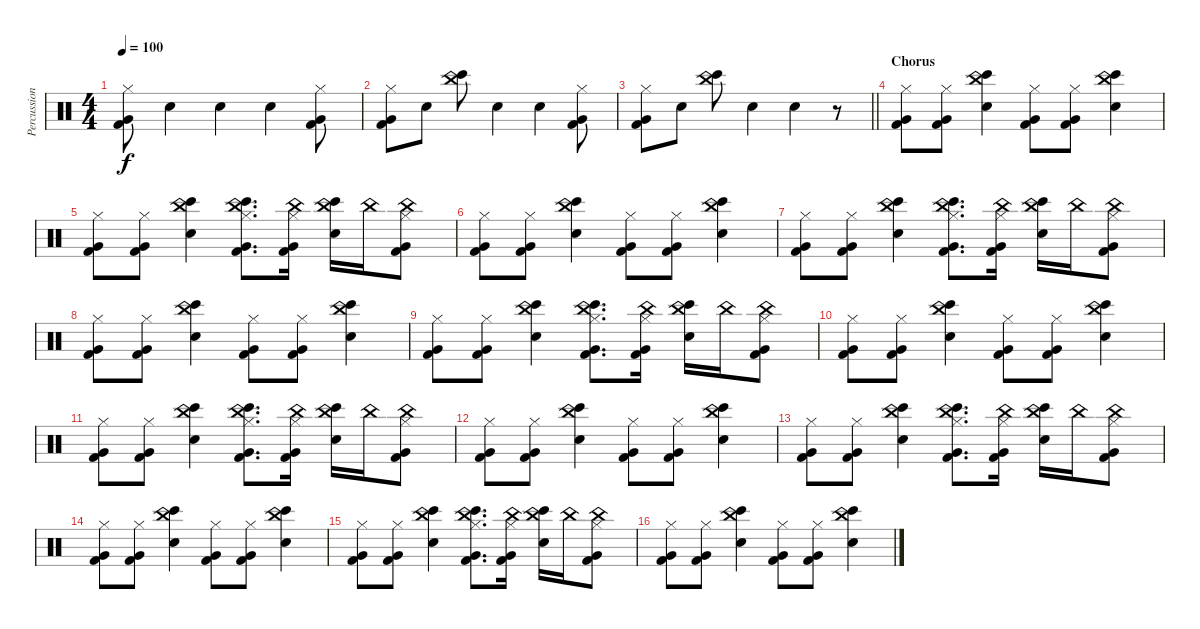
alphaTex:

\track ("Percussion" "Percussion") {instrument percussion}
\staff {score}
\articulation defaults
\ts (4 4)
\tempo 100
\clef neutral
\ks c
("Hi-Hat (closed)" "Very Low Tom (hit)" "Kick (hit) 2").8{dy f} "Hand Clap (hit)".4 "Hand Clap (hit)".4 "Hand Clap (hit)".4 ("Very Low Tom (hit)" "Kick (hit) 2" "Hi-Hat (closed)").8 |
("Hi-Hat (closed)" "Very Low Tom (hit)" "Kick (hit) 2").8 "Hand Clap (hit)".8 ("Bongo High (hit)" "China (hit)").8 "Hand Clap (hit)".4 "Hand Clap (hit)".4 ("Hi-Hat (closed)" "Kick (hit) 2" "Very Low Tom (hit)").8 |
\barLineRight lightlight
("Hi-Hat (closed)" "Very Low Tom (hit)" "Kick (hit) 2").8 "Hand Clap (hit)".8 ("Bongo High (hit)" "China (hit)").8 "Hand Clap (hit)".4 "Hand Clap (hit)".4 r.8 |
\section ("" "Chorus")
("Hi-Hat (closed)" "Kick (hit) 2" "Very Low Tom (hit)").8 ("Hi-Hat (closed)" "Very Low Tom (hit)" "Kick (hit) 2").8 ("Hand Clap (hit)" "Bongo High (hit)" "China (hit)").4 ("Hi-Hat (closed)" "Kick (hit) 2" "Very Low Tom (hit)").8 ("Hi-Hat (closed)" "Very Low Tom (hit)" "Kick (hit) 2").8 ("Bongo High (hit)" "China (hit)" "Hand Clap (hit)").4 |
("Hi-Hat (closed)" "Kick (hit) 2" "Very Low Tom (hit)").8 ("Hi-Hat (closed)" "Very Low Tom (hit)" "Kick (hit) 2").8 ("Bongo High (hit)" "China (hit)" "Hand Clap (hit)").4 ("China (hit)" "Bongo High (hit)" "Hi-Hat (closed)" "Kick (hit) 2" "Very Low Tom (hit)").8{d} ("China (hit)" "Hi-Hat (closed)" "Kick (hit) 2" "Very Low Tom (hit)").16 ("Bongo High (hit)" "China (hit)" "Hand Clap (hit)").16 "China (hit)".16 ("China (hit)" "Hi-Hat (closed)" "Kick (hit) 2" "Very Low Tom (hit)").8 |
("Hi-Hat (closed)" "Kick (hit) 2" "Very Low Tom (hit)").8 ("Hi-Hat (closed)" "Very Low Tom (hit)" "Kick (hit) 2").8 ("Bongo High (hit)" "China (hit)" "Hand Clap (hit)").4 ("Hi-Hat (closed)" "Kick (hit) 2" "Very Low Tom (hit)").8 ("Hi-Hat (closed)" "Very Low Tom (hit)" "Kick (hit) 2").8 ("Hand Clap (hit)" "Bongo High (hit)" "China (hit)").4 |
("Hi-Hat (closed)" "Kick (hit) 2" "Very Low Tom (hit)").8 ("Hi-Hat (closed)" "Very Low Tom (hit)" "Kick (hit) 2").8 ("Bongo High (hit)" "China (hit)" "Hand Clap (hit)").4 ("China (hit)" "Bongo High (hit)" "Hi-Hat (closed)" "Kick (hit) 2" "Very Low Tom (hit)").8{d} ("China (hit)" "Hi-Hat (closed)" "Kick (hit) 2" "Very Low Tom (hit)").16 ("Hand Clap (hit)" "Bongo High (hit)" "China (hit)").16 "China (hit)".16 ("China (hit)" "Hi-Hat (closed)" "Kick (hit) 2" "Very Low Tom (hit)").8 |
("Hi-Hat (closed)" "Kick (hit) 2" "Very Low Tom (hit)").8 ("Hi-Hat (closed)" "Very Low Tom (hit)" "Kick (hit) 2").8 ("Hand Clap (hit)" "Bongo High (hit)" "China (hit)").4 ("Hi-Hat (closed)" "Kick (hit) 2" "Very Low Tom (hit)").8 ("Hi-Hat (closed)" "Very Low Tom (hit)" "Kick (hit) 2").8 ("Bongo High (hit)" "China (hit)" "Hand Clap (hit)").4 |
("Hi-Hat (closed)" "Kick (hit) 2" "Very Low Tom (hit)").8 ("Hi-Hat (closed)" "Very Low Tom (hit)" "Kick (hit) 2").8 ("Bongo High (hit)" "China (hit)" "Hand Clap (hit)").4 ("China (hit)" "Bongo High (hit)" "Hi-Hat (closed)" "Kick (hit) 2" "Very Low Tom (hit)").8{d} ("China (hit)" "Hi-Hat (closed)" "Kick (hit) 2" "Very Low Tom (hit)").16 ("Hand Clap (hit)" "Bongo High (hit)" "China (hit)").16 "China (hit)".16 ("China (hit)" "Hi-Hat (closed)" "Kick (hit) 2" "Very Low Tom (hit)").8 |
("Hi-Hat (closed)" "Kick (hit) 2" "Very Low Tom (hit)").8 ("Hi-Hat (closed)" "Very Low Tom (hit)" "Kick (hit) 2").8 ("Hand Clap (hit)" "Bongo High (hit)" "China (hit)").4 ("Hi-Hat (closed)" "Kick (hit) 2" "Very Low Tom (hit)").8 ("Hi-Hat (closed)" "Very Low Tom (hit)" "Kick (hit) 2").8 ("Bongo High (hit)" "China (hit)" "Hand Clap (hit)").4 |
("Hi-Hat (closed)" "Kick (hit) 2" "Very Low Tom (hit)").8 ("Hi-Hat (closed)" "Very Low Tom (hit)" "Kick (hit) 2").8 ("Bongo High (hit)" "China (hit)" "Hand Clap (hit)").4 ("China (hit)" "Bongo High (hit)" "Hi-Hat (closed)" "Kick (hit) 2" "Very Low Tom (hit)").8{d} ("China (hit)" "Hi-Hat (closed)" "Kick (hit) 2" "Very Low Tom (hit)").16 ("Hand Clap (hit)" "Bongo High (hit)" "China (hit)").16 "China (hit)".16 ("China (hit)" "Hi-Hat (closed)" "Kick (hit) 2" "Very Low Tom (hit)").8 |
("Hi-Hat (closed)" "Kick (hit) 2" "Very Low Tom (hit)").8 ("Hi-Hat (closed)" "Very Low Tom (hit)" "Kick (hit) 2").8 ("Hand Clap (hit)" "Bongo High (hit)" "China (hit)").4 ("Hi-Hat (closed)" "Kick (hit) 2" "Very Low Tom (hit)").8 ("Hi-Hat (closed)" "Very Low Tom (hit)" "Kick (hit) 2").8 ("Bongo High (hit)" "China (hit)" "Hand Clap (hit)").4 |
("Hi-Hat (closed)" "Kick (hit) 2" "Very Low Tom (hit)").8 ("Hi-Hat (closed)" "Very Low Tom (hit)" "Kick (hit) 2").8 ("Bongo High (hit)" "China (hit)" "Hand Clap (hit)").4 ("China (hit)" "Bongo High (hit)" "Hi-Hat (closed)" "Kick (hit) 2" "Very Low Tom (hit)").8{d} ("China (hit)" "Hi-Hat (closed)" "Kick (hit) 2" "Very Low Tom (hit)").16 ("Bongo High (hit)" "China (hit)" "Hand Clap (hit)").16 "China (hit)".16 ("China (hit)" "Hi-Hat (closed)" "Kick (hit) 2" "Very Low Tom (hit)").8 |
("Hi-Hat (closed)" "Kick (hit) 2" "Very Low Tom (hit)").8 ("Hi-Hat (closed)" "Very Low Tom (hit)" "Kick (hit) 2").8 ("Bongo High (hit)" "China (hit)" "Hand Clap (hit)").4 ("Hi-Hat (closed)" "Kick (hit) 2" "Very Low Tom (hit)").8 ("Hi-Hat (closed)" "Very Low Tom (hit)" "Kick (hit) 2").8 ("Hand Clap (hit)" "Bongo High (hit)" "China (hit)").4 |
("Hi-Hat (closed)" "Kick (hit) 2" "Very Low Tom (hit)").8 ("Hi-Hat (closed)" "Very Low Tom (hit)" "Kick (hit) 2").8 ("Bongo High (hit)" "China (hit)" "Hand Clap (hit)").4 ("China (hit)" "Bongo High (hit)" "Hi-Hat (closed)" "Kick (hit) 2" "Very Low Tom (hit)").8{d} ("China (hit)" "Hi-Hat (closed)" "Kick (hit) 2" "Very Low Tom (hit)").16 ("Bongo High (hit)" "China (hit)" "Hand Clap (hit)").16 "China (hit)".16 ("China (hit)" "Hi-Hat (closed)" "Kick (hit) 2" "Very Low Tom (hit)").8 |
("Hi-Hat (closed)" "Kick (hit) 2" "Very Low Tom (hit)").8 ("Hi-Hat (closed)" "Very Low Tom (hit)" "Kick (hit) 2").8 ("Hand Clap (hit)" "Bongo High (hit)" "China (hit)").4 ("Hi-Hat (closed)" "Kick (hit) 2" "Very Low Tom (hit)").8 ("Hi-Hat (closed)" "Very Low Tom (hit)" "Kick (hit) 2").8 ("Bongo High (hit)" "China (hit)" "Hand Clap (hit)").4
